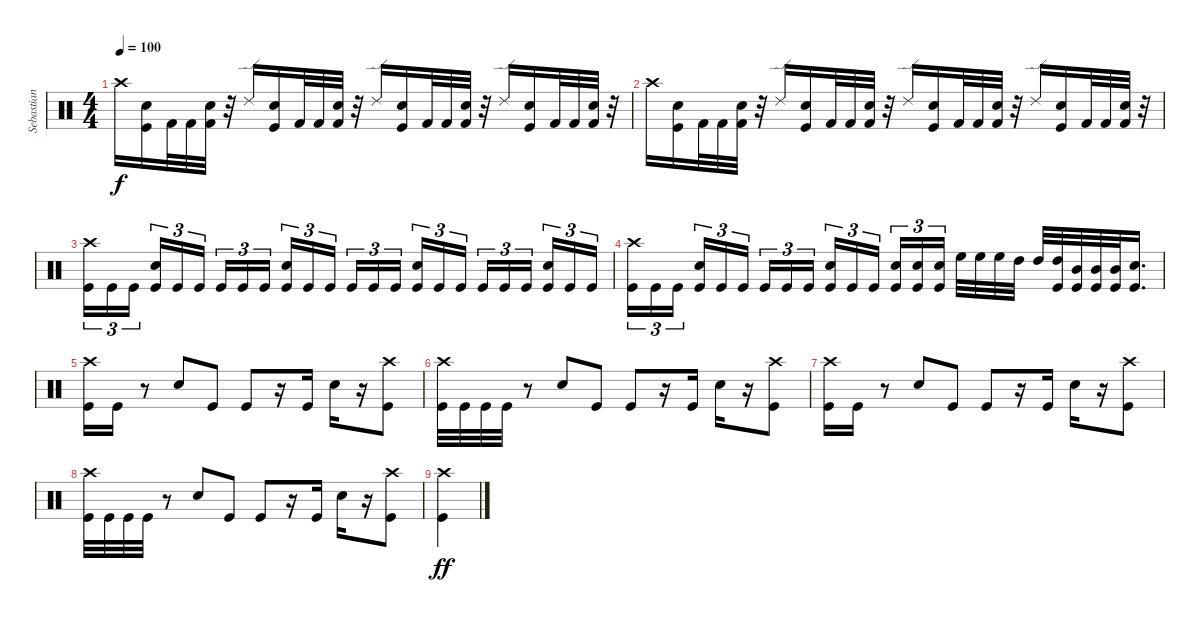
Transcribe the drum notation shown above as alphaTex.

\track ("Sebastian Heldt" "Sebastian ") {instrument percussion}
\staff {score}
\articulation defaults
\ts (4 4)
\tempo 100
\clef neutral
\ks c "Crash high (hit)".16{dy f}
("Kick (hit)" "Snare (hit) 2").16 "Kick (hit) 2".32 "Kick (hit) 2".32 ("Kick (hit) 2" "Snare (hit) 2").32 r.32 "Ride (edge) 2".16 ("Kick (hit)" "Snare (hit) 2").16 "Kick (hit) 2".32 "Kick (hit) 2".32 ("Kick (hit) 2" "Snare (hit) 2").32 r.32 "Ride (edge) 2".16 ("Kick (hit)" "Snare (hit) 2").16 "Kick (hit) 2".32 "Kick (hit) 2".32 ("Kick (hit) 2" "Snare (hit) 2").32 r.32 "Ride (edge) 2".16 ("Kick (hit)" "Snare (hit) 2").16 "Kick (hit) 2".32 "Kick (hit) 2".32 ("Kick (hit) 2" "Snare (hit) 2").32 r.32 |
"Crash high (hit)".16 ("Kick (hit)" "Snare (hit) 2").16 "Kick (hit) 2".32 "Kick (hit) 2".32 ("Kick (hit) 2" "Snare (hit) 2").32 r.32 "Ride (edge) 2".16 ("Kick (hit)" "Snare (hit) 2").16 "Kick (hit) 2".32 "Kick (hit) 2".32 ("Kick (hit) 2" "Snare (hit) 2").32 r.32 "Ride (edge) 2".16 ("Kick (hit)" "Snare (hit) 2").16 "Kick (hit) 2".32 "Kick (hit) 2".32 ("Kick (hit) 2" "Snare (hit) 2").32 r.32 "Ride (edge) 2".16 ("Kick (hit)" "Snare (hit) 2").16 "Kick (hit) 2".32 "Kick (hit) 2".32 ("Kick (hit) 2" "Snare (hit) 2").32 r.32 |
("Kick (hit)" "Crash high (hit)").16{tu (3 2)} "Kick (hit)".16{tu (3 2)} "Kick (hit)".16{tu (3 2) beam splitsecondary} ("Kick (hit)" "Snare (hit) 2").16{tu (3 2)} "Kick (hit)".16{tu (3 2)} "Kick (hit)".16{tu (3 2)} "Kick (hit)".16{tu (3 2)} "Kick (hit)".16{tu (3 2)} "Kick (hit)".16{tu (3 2) beam splitsecondary} ("Kick (hit)" "Snare (hit) 2").16{tu (3 2)} "Kick (hit)".16{tu (3 2)} "Kick (hit)".16{tu (3 2)} "Kick (hit)".16{tu (3 2)} "Kick (hit)".16{tu (3 2)} "Kick (hit)".16{tu (3 2) beam splitsecondary} ("Kick (hit)" "Snare (hit) 2").16{tu (3 2)} "Kick (hit)".16{tu (3 2)} "Kick (hit)".16{tu (3 2)} "Kick (hit)".16{tu (3 2)} "Kick (hit)".16{tu (3 2)} "Kick (hit)".16{tu (3 2) beam splitsecondary} ("Kick (hit)" "Snare (hit) 2").16{tu (3 2)} "Kick (hit)".16{tu (3 2)} "Kick (hit)".16{tu (3 2)} |
("Kick (hit)" "Crash high (hit)").16{tu (3 2)} "Kick (hit)".16{tu (3 2)} "Kick (hit)".16{tu (3 2) beam splitsecondary} ("Kick (hit)" "Snare (hit) 2").16{tu (3 2)} "Kick (hit)".16{tu (3 2)} "Kick (hit)".16{tu (3 2)} "Kick (hit)".16{tu (3 2)} "Kick (hit)".16{tu (3 2)} "Kick (hit)".16{tu (3 2) beam splitsecondary} ("Kick (hit)" "Snare (hit) 2").16{tu (3 2)} "Kick (hit)".16{tu (3 2)} "Kick (hit)".16{tu (3 2)} ("Kick (hit)" "Snare (hit) 2").16{tu (3 2)} ("Kick (hit)" "Snare (hit) 2").16{tu (3 2)} ("Kick (hit)" "Snare (hit) 2").16{tu (3 2) beam splitsecondary} "High Floor Tom (hit)".32 "High Floor Tom (hit)".32 "High Floor Tom (hit)".32 "High Tom (hit)".32 "High Tom (hit)".32 ("High Tom (hit)" "Kick (hit)").32 ("Mid Tom (hit)" "Kick (hit)").32 ("Mid Tom (hit)" "Kick (hit)").32 ("Mid Tom (hit)" "Kick (hit)").32 ("Snare (hit) 2" "Kick (hit)").16{d} |
("Kick (hit)" "Crash high (hit)").16 "Kick (hit)".16 r.8 "Snare (hit) 2".8 "Kick (hit)".8 "Kick (hit)".8 r.16 "Kick (hit)".16 "Snare (hit) 2".16 r.16 ("Kick (hit)" "Crash high (hit)").8 |
("Kick (hit)" "Crash high (hit)").32 "Kick (hit)".32 "Kick (hit)".32 "Kick (hit)".32 r.8 "Snare (hit) 2".8 "Kick (hit)".8 "Kick (hit)".8 r.16 "Kick (hit)".16 "Snare (hit) 2".16 r.16 ("Kick (hit)" "Crash high (hit)").8 |
("Kick (hit)" "Crash high (hit)").16 "Kick (hit)".16 r.8 "Snare (hit) 2".8 "Kick (hit)".8 "Kick (hit)".8 r.16 "Kick (hit)".16 "Snare (hit) 2".16 r.16 ("Kick (hit)" "Crash high (hit)").8 |
("Kick (hit)" "Crash high (hit)").32 "Kick (hit)".32 "Kick (hit)".32 "Kick (hit)".32 r.8 "Snare (hit) 2".8 "Kick (hit)".8 "Kick (hit)".8 r.16 "Kick (hit)".16 "Snare (hit) 2".16 r.16 ("Kick (hit)" "Crash high (hit)").8 |
("Kick (hit)" "Crash high (hit)").4{dy ff}
